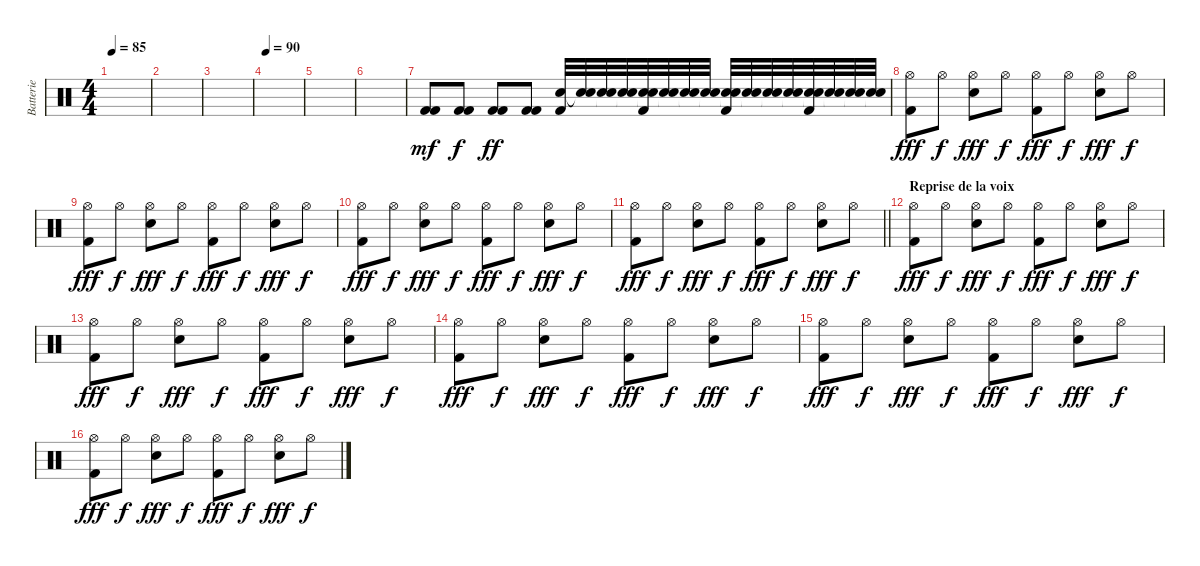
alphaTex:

\track ("Batterie" "Batterie") {instrument percussion}
\staff {score}
\articulation defaults
\ts (4 4)
\tempo 85
\clef neutral
\ks c
|
|
|
\tempo 90
|
|
|
("Kick (hit) 2" "Kick (hit) 2").8{dy mf} ("Kick (hit) 2" "Kick (hit) 2").8{dy f} ("Kick (hit) 2" "Kick (hit) 2").8{dy ff} ("Kick (hit) 2" "Kick (hit) 2").8 ("Snare (hit) 2" "Kick (hit) 2").32 ("Snare (hit)"{t} "Snare (hit) 2").32 ("Snare (hit) 2" "Snare (hit)"{t}).32 ("Snare (hit)"{t} "Snare (hit) 2").32 ("Snare (hit) 2" "Snare (hit)"{t} "Kick (hit) 2").32 ("Snare (hit)"{t} "Snare (hit) 2").32 ("Snare (hit) 2" "Snare (hit)"{t}).32 ("Snare (hit)"{t} "Snare (hit) 2").32 ("Snare (hit) 2" "Snare (hit)"{t} "Kick (hit) 2").32 ("Snare (hit)"{t} "Snare (hit) 2").32 ("Snare (hit) 2" "Snare (hit)"{t}).32 ("Snare (hit)"{t} "Snare (hit) 2").32 ("Snare (hit) 2" "Snare (hit)"{t} "Kick (hit) 2").32 ("Snare (hit)"{t} "Snare (hit) 2").32 ("Snare (hit) 2" "Snare (hit)"{t}).32 ("Snare (hit)"{t} "Snare (hit) 2").32 |
("Hi-Hat (open)" "Kick (hit) 2").8{dy fff} "Hi-Hat (open)".8{dy f} ("Hi-Hat (open)" "Snare (hit) 2").8{dy fff} "Hi-Hat (open)".8{dy f} ("Hi-Hat (open)" "Kick (hit) 2").8{dy fff} "Hi-Hat (open)".8{dy f} ("Hi-Hat (open)" "Snare (hit) 2").8{dy fff} "Hi-Hat (open)".8{dy f} |
("Hi-Hat (open)" "Kick (hit) 2").8{dy fff} "Hi-Hat (open)".8{dy f} ("Hi-Hat (open)" "Snare (hit) 2").8{dy fff} "Hi-Hat (open)".8{dy f} ("Hi-Hat (open)" "Kick (hit) 2").8{dy fff} "Hi-Hat (open)".8{dy f} ("Hi-Hat (open)" "Snare (hit) 2").8{dy fff} "Hi-Hat (open)".8{dy f} |
("Hi-Hat (open)" "Kick (hit) 2").8{dy fff} "Hi-Hat (open)".8{dy f} ("Hi-Hat (open)" "Snare (hit) 2").8{dy fff} "Hi-Hat (open)".8{dy f} ("Hi-Hat (open)" "Kick (hit) 2").8{dy fff} "Hi-Hat (open)".8{dy f} ("Hi-Hat (open)" "Snare (hit) 2").8{dy fff} "Hi-Hat (open)".8{dy f} |
\barLineRight lightlight
("Hi-Hat (open)" "Kick (hit) 2").8{dy fff} "Hi-Hat (open)".8{dy f} ("Hi-Hat (open)" "Snare (hit) 2").8{dy fff} "Hi-Hat (open)".8{dy f} ("Hi-Hat (open)" "Kick (hit) 2").8{dy fff} "Hi-Hat (open)".8{dy f} ("Hi-Hat (open)" "Snare (hit) 2").8{dy fff} "Hi-Hat (open)".8{dy f} |
\section ("" "Reprise de la voix")
("Hi-Hat (open)" "Kick (hit) 2").8{dy fff} "Hi-Hat (open)".8{dy f} ("Hi-Hat (open)" "Snare (hit) 2").8{dy fff} "Hi-Hat (open)".8{dy f} ("Hi-Hat (open)" "Kick (hit) 2").8{dy fff} "Hi-Hat (open)".8{dy f} ("Hi-Hat (open)" "Snare (hit) 2").8{dy fff} "Hi-Hat (open)".8{dy f} |
("Hi-Hat (open)" "Kick (hit) 2").8{dy fff} "Hi-Hat (open)".8{dy f} ("Hi-Hat (open)" "Snare (hit) 2").8{dy fff} "Hi-Hat (open)".8{dy f} ("Hi-Hat (open)" "Kick (hit) 2").8{dy fff} "Hi-Hat (open)".8{dy f} ("Hi-Hat (open)" "Snare (hit) 2").8{dy fff} "Hi-Hat (open)".8{dy f} |
("Hi-Hat (open)" "Kick (hit) 2").8{dy fff} "Hi-Hat (open)".8{dy f} ("Hi-Hat (open)" "Snare (hit) 2").8{dy fff} "Hi-Hat (open)".8{dy f} ("Hi-Hat (open)" "Kick (hit) 2").8{dy fff} "Hi-Hat (open)".8{dy f} ("Hi-Hat (open)" "Snare (hit) 2").8{dy fff} "Hi-Hat (open)".8{dy f} |
("Hi-Hat (open)" "Kick (hit) 2").8{dy fff} "Hi-Hat (open)".8{dy f} ("Hi-Hat (open)" "Snare (hit) 2").8{dy fff} "Hi-Hat (open)".8{dy f} ("Hi-Hat (open)" "Kick (hit) 2").8{dy fff} "Hi-Hat (open)".8{dy f} ("Hi-Hat (open)" "Snare (hit) 2").8{dy fff} "Hi-Hat (open)".8{dy f} |
("Hi-Hat (open)" "Kick (hit) 2").8{dy fff} "Hi-Hat (open)".8{dy f} ("Hi-Hat (open)" "Snare (hit) 2").8{dy fff} "Hi-Hat (open)".8{dy f} ("Hi-Hat (open)" "Kick (hit) 2").8{dy fff} "Hi-Hat (open)".8{dy f} ("Hi-Hat (open)" "Snare (hit) 2").8{dy fff} "Hi-Hat (open)".8{dy f}
